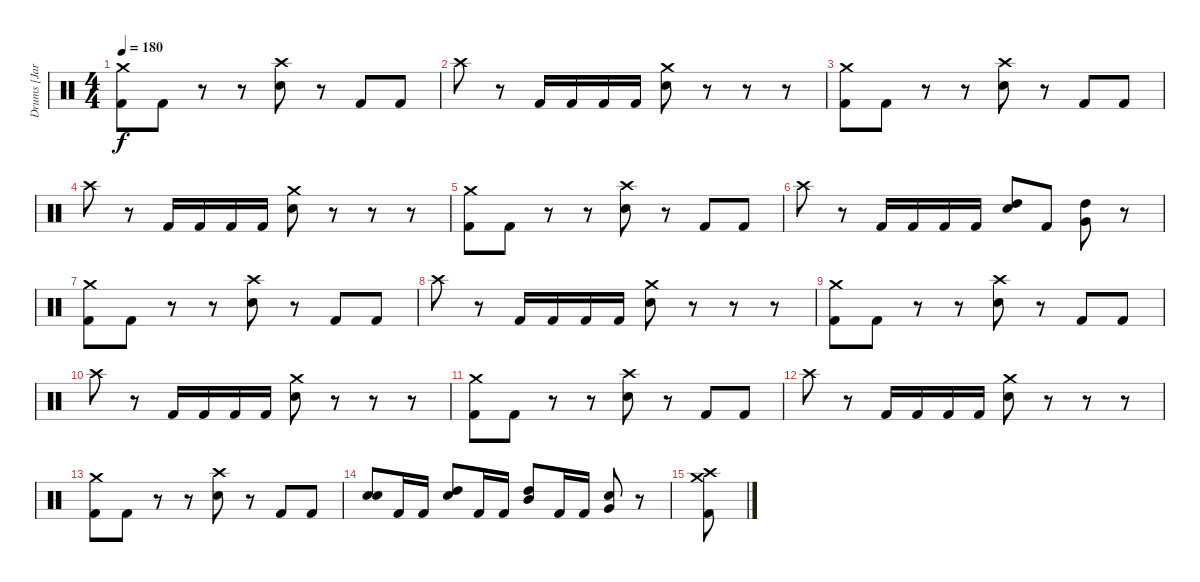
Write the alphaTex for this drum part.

\track ("Drums [Jared]" "Drums [Jar") {instrument percussion}
\staff {score}
\articulation defaults
\ts (4 4)
\tempo 180
\clef neutral
\ks c
("Crash medium (hit)" "Kick (hit) 2").8{dy f} "Kick (hit) 2".8 r.8 r.8 ("Crash high (hit)" "Electric Snare (hit)").8 r.8 "Kick (hit) 2".8 "Kick (hit) 2".8 |
"Crash high (hit)".8 r.8 "Kick (hit) 2".16 "Kick (hit) 2".16 "Kick (hit) 2".16 "Kick (hit) 2".16 ("Crash medium (hit)" "Electric Snare (hit)").8 r.8 r.8 r.8 |
("Crash medium (hit)" "Kick (hit) 2").8 "Kick (hit) 2".8 r.8 r.8 ("Crash high (hit)" "Electric Snare (hit)").8 r.8 "Kick (hit) 2".8 "Kick (hit) 2".8 |
"Crash high (hit)".8 r.8 "Kick (hit) 2".16 "Kick (hit) 2".16 "Kick (hit) 2".16 "Kick (hit) 2".16 ("Crash medium (hit)" "Electric Snare (hit)").8 r.8 r.8 r.8 |
("Crash medium (hit)" "Kick (hit) 2").8 "Kick (hit) 2".8 r.8 r.8 ("Crash high (hit)" "Electric Snare (hit)").8 r.8 "Kick (hit) 2".8 "Kick (hit) 2".8 |
"Crash high (hit)".8 r.8 "Kick (hit) 2".16 "Kick (hit) 2".16 "Kick (hit) 2".16 "Kick (hit) 2".16 ("High Tom (hit)" "Electric Snare (hit)").8 "Kick (hit) 2".8 ("High Tom (hit)" "Very Low Tom (hit)").8 r.8 |
("Crash medium (hit)" "Kick (hit) 2").8 "Kick (hit) 2".8 r.8 r.8 ("Crash high (hit)" "Electric Snare (hit)").8 r.8 "Kick (hit) 2".8 "Kick (hit) 2".8 |
"Crash high (hit)".8 r.8 "Kick (hit) 2".16 "Kick (hit) 2".16 "Kick (hit) 2".16 "Kick (hit) 2".16 ("Crash medium (hit)" "Electric Snare (hit)").8 r.8 r.8 r.8 |
("Crash medium (hit)" "Kick (hit) 2").8 "Kick (hit) 2".8 r.8 r.8 ("Crash high (hit)" "Electric Snare (hit)").8 r.8 "Kick (hit) 2".8 "Kick (hit) 2".8 |
"Crash high (hit)".8 r.8 "Kick (hit) 2".16 "Kick (hit) 2".16 "Kick (hit) 2".16 "Kick (hit) 2".16 ("Crash medium (hit)" "Electric Snare (hit)").8 r.8 r.8 r.8 |
("Crash medium (hit)" "Kick (hit) 2").8 "Kick (hit) 2".8 r.8 r.8 ("Crash high (hit)" "Electric Snare (hit)").8 r.8 "Kick (hit) 2".8 "Kick (hit) 2".8 |
"Crash high (hit)".8 r.8 "Kick (hit) 2".16 "Kick (hit) 2".16 "Kick (hit) 2".16 "Kick (hit) 2".16 ("Crash medium (hit)" "Electric Snare (hit)").8 r.8 r.8 r.8 |
("Crash medium (hit)" "Kick (hit) 2").8 "Kick (hit) 2".8 r.8 r.8 ("Crash high (hit)" "Electric Snare (hit)").8 r.8 "Kick (hit) 2".8 "Kick (hit) 2".8 |
("Electric Snare (hit)" "Electric Snare (hit)").8 "Kick (hit) 2".16 "Kick (hit) 2".16 ("High Tom (hit)" "Electric Snare (hit)").8 "Kick (hit) 2".16 "Kick (hit) 2".16 ("Mid Tom (hit)" "High Tom (hit)").8 "Kick (hit) 2".16 "Kick (hit) 2".16 ("Very Low Tom (hit)" "Electric Snare (hit)").8 r.8 |
("Crash medium (hit)" "Crash high (hit)" "Kick (hit) 2").8
